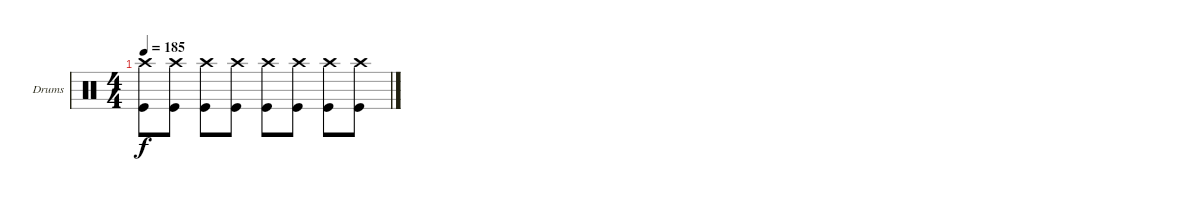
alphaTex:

\defaultSystemsLayout 4
\bracketExtendMode nobrackets
\firstSystemTrackNameOrientation horizontal
\otherSystemsTrackNameOrientation horizontal
\track ("Drumkit" "Drums") {instrument percussion}
\staff {score}
\articulation defaults
\ts (4 4)
\tempo 185
\clef neutral
\ks c
("Crash high (hit)" "Kick (hit)").8{dy f} ("Crash high (hit)" "Kick (hit)").8 ("Crash high (hit)" "Kick (hit)").8 ("Crash high (hit)" "Kick (hit)").8 ("Crash high (hit)" "Kick (hit)").8 ("Crash high (hit)" "Kick (hit)").8 ("Crash high (hit)" "Kick (hit)").8 ("Crash high (hit)" "Kick (hit)").8
